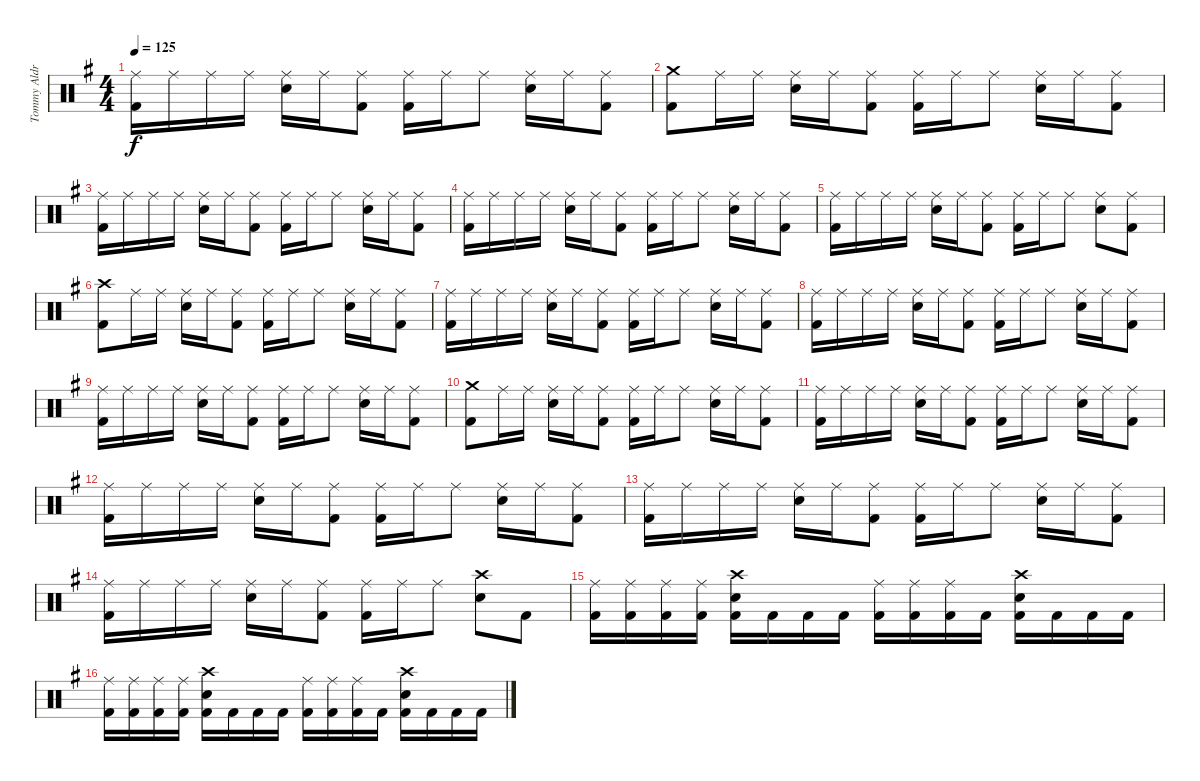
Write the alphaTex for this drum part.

\track ("Tommy Aldridge" "Tommy Aldr") {instrument percussion}
\staff {score}
\articulation defaults
\ts (4 4)
\tempo 125
\clef neutral
\ks eminor
("Ride (middle)" "Kick (hit) 2").16{dy f} "Ride (middle)".16 "Ride (middle)".16 "Ride (middle)".16 ("Ride (middle)" "Snare (hit) 2").16 "Ride (middle)".16 ("Ride (middle)" "Kick (hit) 2").8 ("Ride (middle)" "Kick (hit) 2").16 "Ride (middle)".16 "Ride (middle)".8 ("Ride (middle)" "Snare (hit) 2").16 "Ride (middle)".16 ("Ride (middle)" "Kick (hit) 2").8 |
("Crash medium (hit)" "Kick (hit) 2").8 "Ride (middle)".16 "Ride (middle)".16 ("Ride (middle)" "Snare (hit) 2").16 "Ride (middle)".16 ("Ride (middle)" "Kick (hit) 2").8 ("Ride (middle)" "Kick (hit) 2").16 "Ride (middle)".16 "Ride (middle)".8 ("Ride (middle)" "Snare (hit) 2").16 "Ride (middle)".16 ("Ride (middle)" "Kick (hit) 2").8 |
("Ride (middle)" "Kick (hit) 2").16 "Ride (middle)".16 "Ride (middle)".16 "Ride (middle)".16 ("Ride (middle)" "Snare (hit) 2").16 "Ride (middle)".16 ("Ride (middle)" "Kick (hit) 2").8 ("Ride (middle)" "Kick (hit) 2").16 "Ride (middle)".16 "Ride (middle)".8 ("Ride (middle)" "Snare (hit) 2").16 "Ride (middle)".16 ("Ride (middle)" "Kick (hit) 2").8 |
("Ride (middle)" "Kick (hit) 2").16 "Ride (middle)".16 "Ride (middle)".16 "Ride (middle)".16 ("Ride (middle)" "Snare (hit) 2").16 "Ride (middle)".16 ("Ride (middle)" "Kick (hit) 2").8 ("Ride (middle)" "Kick (hit) 2").16 "Ride (middle)".16 "Ride (middle)".8 ("Ride (middle)" "Snare (hit) 2").16 "Ride (middle)".16 ("Ride (middle)" "Kick (hit) 2").8 |
("Ride (middle)" "Kick (hit) 2").16 "Ride (middle)".16 "Ride (middle)".16 "Ride (middle)".16 ("Ride (middle)" "Snare (hit) 2").16 "Ride (middle)".16 ("Ride (middle)" "Kick (hit) 2").8 ("Ride (middle)" "Kick (hit) 2").16 "Ride (middle)".16 "Ride (middle)".8 ("Ride (middle)" "Snare (hit) 2").8 ("Ride (middle)" "Kick (hit) 2").8 |
("Crash high (hit)" "Kick (hit) 2").8 "Ride (middle)".16 "Ride (middle)".16 ("Ride (middle)" "Snare (hit) 2").16 "Ride (middle)".16 ("Ride (middle)" "Kick (hit) 2").8 ("Ride (middle)" "Kick (hit) 2").16 "Ride (middle)".16 "Ride (middle)".8 ("Ride (middle)" "Snare (hit) 2").16 "Ride (middle)".16 ("Ride (middle)" "Kick (hit) 2").8 |
("Ride (middle)" "Kick (hit) 2").16 "Ride (middle)".16 "Ride (middle)".16 "Ride (middle)".16 ("Ride (middle)" "Snare (hit) 2").16 "Ride (middle)".16 ("Ride (middle)" "Kick (hit) 2").8 ("Ride (middle)" "Kick (hit) 2").16 "Ride (middle)".16 "Ride (middle)".8 ("Ride (middle)" "Snare (hit) 2").16 "Ride (middle)".16 ("Ride (middle)" "Kick (hit) 2").8 |
("Ride (middle)" "Kick (hit) 2").16 "Ride (middle)".16 "Ride (middle)".16 "Ride (middle)".16 ("Ride (middle)" "Snare (hit) 2").16 "Ride (middle)".16 ("Ride (middle)" "Kick (hit) 2").8 ("Ride (middle)" "Kick (hit) 2").16 "Ride (middle)".16 "Ride (middle)".8 ("Ride (middle)" "Snare (hit) 2").16 "Ride (middle)".16 ("Ride (middle)" "Kick (hit) 2").8 |
("Ride (middle)" "Kick (hit) 2").16 "Ride (middle)".16 "Ride (middle)".16 "Ride (middle)".16 ("Ride (middle)" "Snare (hit) 2").16 "Ride (middle)".16 ("Ride (middle)" "Kick (hit) 2").8 ("Ride (middle)" "Kick (hit) 2").16 "Ride (middle)".16 "Ride (middle)".8 ("Ride (middle)" "Snare (hit) 2").16 "Ride (middle)".16 ("Ride (middle)" "Kick (hit) 2").8 |
("Crash medium (hit)" "Kick (hit) 2").8 "Ride (middle)".16 "Ride (middle)".16 ("Ride (middle)" "Snare (hit) 2").16 "Ride (middle)".16 ("Ride (middle)" "Kick (hit) 2").8 ("Ride (middle)" "Kick (hit) 2").16 "Ride (middle)".16 "Ride (middle)".8 ("Ride (middle)" "Snare (hit) 2").16 "Ride (middle)".16 ("Ride (middle)" "Kick (hit) 2").8 |
("Ride (middle)" "Kick (hit) 2").16 "Ride (middle)".16 "Ride (middle)".16 "Ride (middle)".16 ("Ride (middle)" "Snare (hit) 2").16 "Ride (middle)".16 ("Ride (middle)" "Kick (hit) 2").8 ("Ride (middle)" "Kick (hit) 2").16 "Ride (middle)".16 "Ride (middle)".8 ("Ride (middle)" "Snare (hit) 2").16 "Ride (middle)".16 ("Ride (middle)" "Kick (hit) 2").8 |
("Ride (middle)" "Kick (hit) 2").16 "Ride (middle)".16 "Ride (middle)".16 "Ride (middle)".16 ("Ride (middle)" "Snare (hit) 2").16 "Ride (middle)".16 ("Ride (middle)" "Kick (hit) 2").8 ("Ride (middle)" "Kick (hit) 2").16 "Ride (middle)".16 "Ride (middle)".8 ("Ride (middle)" "Snare (hit) 2").16 "Ride (middle)".16 ("Ride (middle)" "Kick (hit) 2").8 |
("Ride (middle)" "Kick (hit) 2").16 "Ride (middle)".16 "Ride (middle)".16 "Ride (middle)".16 ("Ride (middle)" "Snare (hit) 2").16 "Ride (middle)".16 ("Ride (middle)" "Kick (hit) 2").8 ("Ride (middle)" "Kick (hit) 2").16 "Ride (middle)".16 "Ride (middle)".8 ("Ride (middle)" "Snare (hit) 2").16 "Ride (middle)".16 ("Ride (middle)" "Kick (hit) 2").8 |
("Ride (middle)" "Kick (hit) 2").16 "Ride (middle)".16 "Ride (middle)".16 "Ride (middle)".16 ("Ride (middle)" "Snare (hit) 2").16 "Ride (middle)".16 ("Ride (middle)" "Kick (hit) 2").8 ("Ride (middle)" "Kick (hit) 2").16 "Ride (middle)".16 "Ride (middle)".8 ("Crash high (hit)" "Snare (hit) 2").8 "Kick (hit) 2".8 |
("Ride (middle)" "Kick (hit) 2").16 ("Ride (middle)" "Kick (hit) 2").16 ("Ride (middle)" "Kick (hit) 2").16 ("Ride (middle)" "Kick (hit) 2").16 ("Crash high (hit)" "Snare (hit) 2" "Kick (hit) 2").16 "Kick (hit) 2".16 "Kick (hit) 2".16 "Kick (hit) 2".16 ("Ride (middle)" "Kick (hit) 2").16 ("Ride (middle)" "Kick (hit) 2").16 ("Ride (middle)" "Kick (hit) 2").16 "Kick (hit) 2".16 ("Crash high (hit)" "Snare (hit) 2" "Kick (hit) 2").16 "Kick (hit) 2".16 "Kick (hit) 2".16 "Kick (hit) 2".16 |
("Ride (middle)" "Kick (hit) 2").16 ("Ride (middle)" "Kick (hit) 2").16 ("Ride (middle)" "Kick (hit) 2").16 ("Ride (middle)" "Kick (hit) 2").16 ("Crash high (hit)" "Snare (hit) 2" "Kick (hit) 2").16 "Kick (hit) 2".16 "Kick (hit) 2".16 "Kick (hit) 2".16 ("Ride (middle)" "Kick (hit) 2").16 ("Ride (middle)" "Kick (hit) 2").16 ("Ride (middle)" "Kick (hit) 2").16 "Kick (hit) 2".16 ("Crash high (hit)" "Snare (hit) 2" "Kick (hit) 2").16 "Kick (hit) 2".16 "Kick (hit) 2".16 "Kick (hit) 2".16
